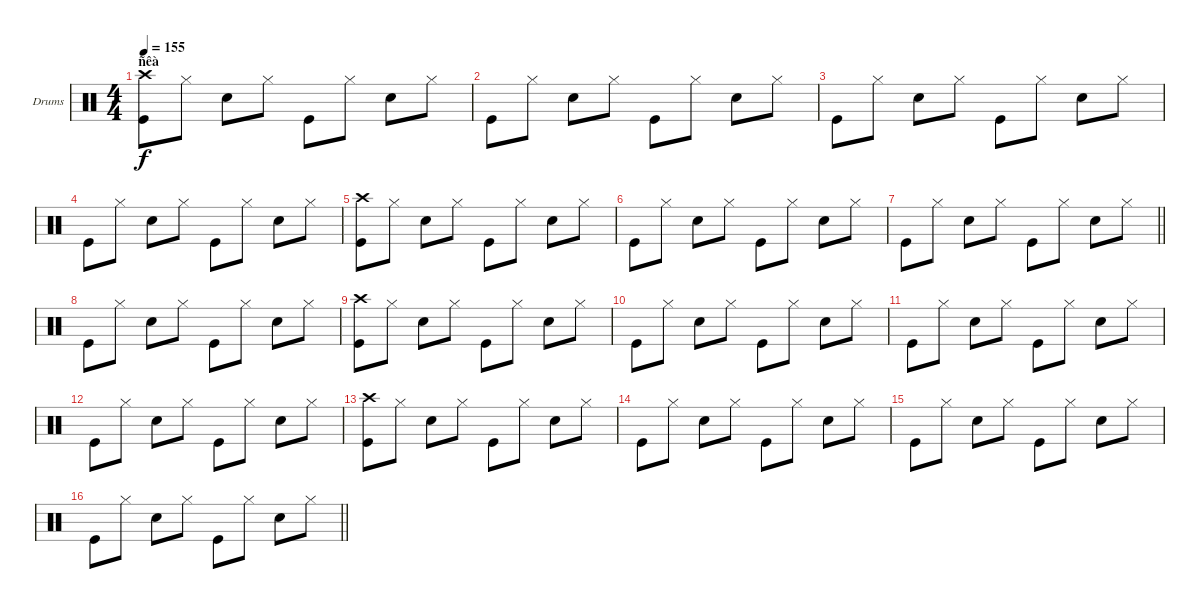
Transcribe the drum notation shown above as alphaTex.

\bracketExtendMode groupsimilarinstruments
\firstSystemTrackNameOrientation horizontal
\otherSystemsTrackNameOrientation horizontal
\track ("Drumkit" "Drums") {instrument percussion}
\staff {score}
\articulation defaults
\ts (4 4)
\section ("" "ñêà")
\tempo 155
\clef neutral
\ks c
("Crash high (hit)" "Kick (hit)").8{dy f} "Hi-Hat (closed)".8 "Snare (hit) 2".8 "Hi-Hat (closed)".8 "Kick (hit)".8 "Hi-Hat (closed)".8 "Snare (hit) 2".8 "Hi-Hat (closed)".8 |
"Kick (hit)".8 "Hi-Hat (closed)".8 "Snare (hit) 2".8 "Hi-Hat (closed)".8 "Kick (hit)".8 "Hi-Hat (closed)".8 "Snare (hit) 2".8 "Hi-Hat (closed)".8 |
"Kick (hit)".8 "Hi-Hat (closed)".8 "Snare (hit) 2".8 "Hi-Hat (closed)".8 "Kick (hit)".8 "Hi-Hat (closed)".8 "Snare (hit) 2".8 "Hi-Hat (closed)".8 |
"Kick (hit)".8 "Hi-Hat (closed)".8 "Snare (hit) 2".8 "Hi-Hat (closed)".8 "Kick (hit)".8 "Hi-Hat (closed)".8 "Snare (hit) 2".8 "Hi-Hat (closed)".8 |
("Crash high (hit)" "Kick (hit)").8 "Hi-Hat (closed)".8 "Snare (hit) 2".8 "Hi-Hat (closed)".8 "Kick (hit)".8 "Hi-Hat (closed)".8 "Snare (hit) 2".8 "Hi-Hat (closed)".8 |
"Kick (hit)".8 "Hi-Hat (closed)".8 "Snare (hit) 2".8 "Hi-Hat (closed)".8 "Kick (hit)".8 "Hi-Hat (closed)".8 "Snare (hit) 2".8 "Hi-Hat (closed)".8 |
\barLineRight lightlight "Kick (hit)".8 "Hi-Hat (closed)".8 "Snare (hit) 2".8 "Hi-Hat (closed)".8 "Kick (hit)".8 "Hi-Hat (closed)".8 "Snare (hit) 2".8 "Hi-Hat (closed)".8
|
\section ("" "")
"Kick (hit)".8 "Hi-Hat (closed)".8 "Snare (hit) 2".8 "Hi-Hat (closed)".8 "Kick (hit)".8 "Hi-Hat (closed)".8 "Snare (hit) 2".8 "Hi-Hat (closed)".8 |
("Crash high (hit)" "Kick (hit)").8 "Hi-Hat (closed)".8 "Snare (hit) 2".8 "Hi-Hat (closed)".8 "Kick (hit)".8 "Hi-Hat (closed)".8 "Snare (hit) 2".8 "Hi-Hat (closed)".8 |
"Kick (hit)".8 "Hi-Hat (closed)".8 "Snare (hit) 2".8 "Hi-Hat (closed)".8 "Kick (hit)".8 "Hi-Hat (closed)".8 "Snare (hit) 2".8 "Hi-Hat (closed)".8 |
"Kick (hit)".8 "Hi-Hat (closed)".8 "Snare (hit) 2".8 "Hi-Hat (closed)".8 "Kick (hit)".8 "Hi-Hat (closed)".8 "Snare (hit) 2".8 "Hi-Hat (closed)".8 |
"Kick (hit)".8 "Hi-Hat (closed)".8 "Snare (hit) 2".8 "Hi-Hat (closed)".8 "Kick (hit)".8 "Hi-Hat (closed)".8 "Snare (hit) 2".8 "Hi-Hat (closed)".8 |
("Crash high (hit)" "Kick (hit)").8 "Hi-Hat (closed)".8 "Snare (hit) 2".8 "Hi-Hat (closed)".8 "Kick (hit)".8 "Hi-Hat (closed)".8 "Snare (hit) 2".8 "Hi-Hat (closed)".8 |
"Kick (hit)".8 "Hi-Hat (closed)".8 "Snare (hit) 2".8 "Hi-Hat (closed)".8 "Kick (hit)".8 "Hi-Hat (closed)".8 "Snare (hit) 2".8 "Hi-Hat (closed)".8 |
"Kick (hit)".8 "Hi-Hat (closed)".8 "Snare (hit) 2".8 "Hi-Hat (closed)".8 "Kick (hit)".8 "Hi-Hat (closed)".8 "Snare (hit) 2".8 "Hi-Hat (closed)".8 |
\barLineRight lightlight "Kick (hit)".8 "Hi-Hat (closed)".8 "Snare (hit) 2".8 "Hi-Hat (closed)".8 "Kick (hit)".8 "Hi-Hat (closed)".8 "Snare (hit) 2".8 "Hi-Hat (closed)".8
